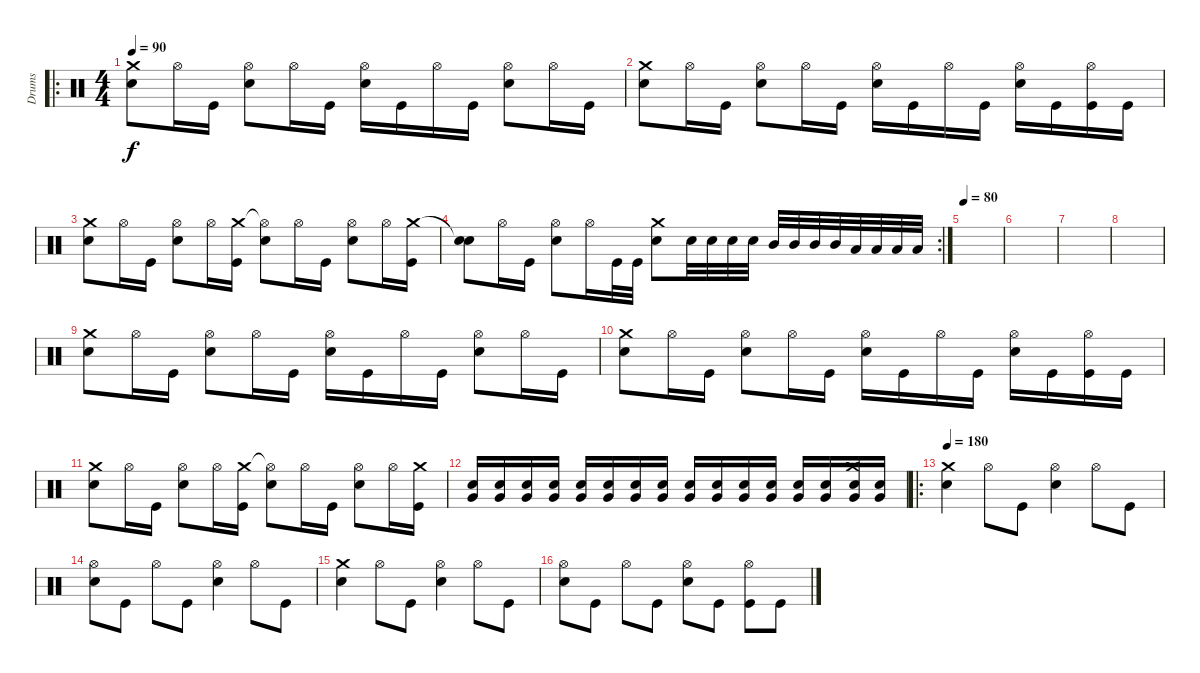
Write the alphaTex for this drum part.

\track ("Drums" "Drums") {instrument percussion}
\staff {score}
\articulation defaults
\ro
\ts (4 4)
\tempo 90
\clef neutral
\ks c
("Electric Snare (hit)" "Crash medium (hit)").8{dy f} "Hi-Hat (open)".16 "Kick (hit)".16 ("Electric Snare (hit)" "Hi-Hat (open)").8 "Hi-Hat (open)".16 "Kick (hit)".16 ("Electric Snare (hit)" "Hi-Hat (open)").16 "Kick (hit)".16 "Hi-Hat (open)".16 "Kick (hit)".16 ("Electric Snare (hit)" "Hi-Hat (open)").8 "Hi-Hat (open)".16 "Kick (hit)".16 |
("Electric Snare (hit)" "Crash medium (hit)").8 "Hi-Hat (open)".16 "Kick (hit)".16 ("Electric Snare (hit)" "Hi-Hat (open)").8 "Hi-Hat (open)".16 "Kick (hit)".16 ("Electric Snare (hit)" "Hi-Hat (open)").16 "Kick (hit)".16 "Hi-Hat (open)".16 "Kick (hit)".16 ("Electric Snare (hit)" "Hi-Hat (open)").16 "Kick (hit)".16 ("Kick (hit)" "Hi-Hat (open)").16 "Kick (hit)".16 |
("Electric Snare (hit)" "Crash medium (hit)").8 "Hi-Hat (open)".16 "Kick (hit)".16 ("Electric Snare (hit)" "Hi-Hat (open)").8 "Hi-Hat (open)".16 ("Kick (hit)" "Crash medium (hit)").16 ("Electric Snare (hit)" "Hi-Hat (open)"{t}).8 "Hi-Hat (open)".16 "Kick (hit)".16 ("Electric Snare (hit)" "Hi-Hat (open)").8 "Hi-Hat (open)".16 ("Kick (hit)" "Crash medium (hit)").16 |
\rc 2
("Electric Snare (hit)" "Snare (hit)"{t}).8 "Hi-Hat (open)".16 "Kick (hit)".16 ("Electric Snare (hit)" "Hi-Hat (open)").8 "Hi-Hat (open)".16 "Kick (hit)".32 "Kick (hit)".32 ("Electric Snare (hit)" "Crash medium (hit)").8 "Electric Snare (hit)".32 "Electric Snare (hit)".32 "Electric Snare (hit)".32 "Electric Snare (hit)".32 "Mid Tom (hit)".32 "Mid Tom (hit)".32 "Mid Tom (hit)".32 "Mid Tom (hit)".32 "Low Tom (hit)".32 "Low Tom (hit)".32 "Low Tom (hit)".32 "Low Tom (hit)".32 |
\tempo 80
|
|
|
|
("Electric Snare (hit)" "Crash medium (hit)").8 "Hi-Hat (open)".16 "Kick (hit)".16 ("Electric Snare (hit)" "Hi-Hat (open)").8 "Hi-Hat (open)".16 "Kick (hit)".16 ("Electric Snare (hit)" "Hi-Hat (open)").16 "Kick (hit)".16 "Hi-Hat (open)".16 "Kick (hit)".16 ("Electric Snare (hit)" "Hi-Hat (open)").8 "Hi-Hat (open)".16 "Kick (hit)".16 |
("Electric Snare (hit)" "Crash medium (hit)").8 "Hi-Hat (open)".16 "Kick (hit)".16 ("Electric Snare (hit)" "Hi-Hat (open)").8 "Hi-Hat (open)".16 "Kick (hit)".16 ("Electric Snare (hit)" "Hi-Hat (open)").16 "Kick (hit)".16 "Hi-Hat (open)".16 "Kick (hit)".16 ("Electric Snare (hit)" "Hi-Hat (open)").16 "Kick (hit)".16 ("Kick (hit)" "Hi-Hat (open)").16 "Kick (hit)".16 |
("Electric Snare (hit)" "Crash medium (hit)").8 "Hi-Hat (open)".16 "Kick (hit)".16 ("Electric Snare (hit)" "Hi-Hat (open)").8 "Hi-Hat (open)".16 ("Kick (hit)" "Crash medium (hit)").16 ("Electric Snare (hit)" "Hi-Hat (open)"{t}).8 "Hi-Hat (open)".16 "Kick (hit)".16 ("Electric Snare (hit)" "Hi-Hat (open)").8 "Hi-Hat (open)".16 ("Kick (hit)" "Crash medium (hit)").16 |
("Very Low Tom (hit)" "Electric Snare (hit)").16 ("Very Low Tom (hit)" "Electric Snare (hit)").16 ("Very Low Tom (hit)" "Electric Snare (hit)").16 ("Very Low Tom (hit)" "Electric Snare (hit)").16 ("Very Low Tom (hit)" "Electric Snare (hit)").16 ("Very Low Tom (hit)" "Electric Snare (hit)").16 ("Very Low Tom (hit)" "Electric Snare (hit)").16 ("Very Low Tom (hit)" "Electric Snare (hit)").16 ("Very Low Tom (hit)" "Electric Snare (hit)").16 ("Very Low Tom (hit)" "Electric Snare (hit)").16 ("Very Low Tom (hit)" "Electric Snare (hit)").16 ("Very Low Tom (hit)" "Electric Snare (hit)").16 ("Very Low Tom (hit)" "Electric Snare (hit)").16 ("Very Low Tom (hit)" "Electric Snare (hit)").16 ("Crash medium (hit)" "Very Low Tom (hit)" "Electric Snare (hit)").16 ("Very Low Tom (hit)" "Electric Snare (hit)").16 |
\ro
\tempo 180
("Electric Snare (hit)" "Crash medium (hit)").4 "Hi-Hat (open)".8 "Kick (hit)".8 ("Electric Snare (hit)" "Hi-Hat (open)").4 "Hi-Hat (open)".8 "Kick (hit)".8 |
("Electric Snare (hit)" "Hi-Hat (open)").8 "Kick (hit)".8 "Hi-Hat (open)".8 "Kick (hit)".8 ("Electric Snare (hit)" "Hi-Hat (open)").4 "Hi-Hat (open)".8 "Kick (hit)".8 |
("Electric Snare (hit)" "Crash medium (hit)").4 "Hi-Hat (open)".8 "Kick (hit)".8 ("Electric Snare (hit)" "Hi-Hat (open)").4 "Hi-Hat (open)".8 "Kick (hit)".8 |
("Electric Snare (hit)" "Hi-Hat (open)").8 "Kick (hit)".8 "Hi-Hat (open)".8 "Kick (hit)".8 ("Electric Snare (hit)" "Hi-Hat (open)").8 "Kick (hit)".8 ("Kick (hit)" "Hi-Hat (open)").8 "Kick (hit)".8
